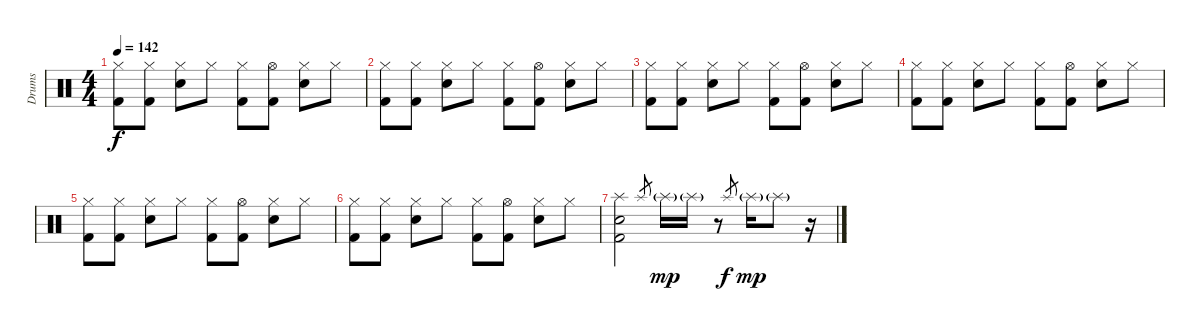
\track ("Drums" "Drums") {instrument percussion}
\staff {score}
\articulation defaults
\ts (4 4)
\tempo 142
\clef neutral
\ks c
("Hi-Hat (closed)" "Kick (hit) 2").8{dy f} ("Hi-Hat (closed)" "Kick (hit) 2").8 ("Hi-Hat (closed)" "Electric Snare (hit)").8 "Hi-Hat (closed)".8 ("Hi-Hat (closed)" "Kick (hit) 2").8 ("Hi-Hat (open)" "Kick (hit) 2").8 ("Hi-Hat (closed)" "Electric Snare (hit)").8 "Hi-Hat (closed)".8 |
("Hi-Hat (closed)" "Kick (hit) 2").8 ("Hi-Hat (closed)" "Kick (hit) 2").8 ("Hi-Hat (closed)" "Electric Snare (hit)").8 "Hi-Hat (closed)".8 ("Hi-Hat (closed)" "Kick (hit) 2").8 ("Hi-Hat (open)" "Kick (hit) 2").8 ("Hi-Hat (closed)" "Electric Snare (hit)").8 "Hi-Hat (closed)".8 |
("Hi-Hat (closed)" "Kick (hit) 2").8 ("Hi-Hat (closed)" "Kick (hit) 2").8 ("Hi-Hat (closed)" "Electric Snare (hit)").8 "Hi-Hat (closed)".8 ("Hi-Hat (closed)" "Kick (hit) 2").8 ("Hi-Hat (open)" "Kick (hit) 2").8 ("Hi-Hat (closed)" "Electric Snare (hit)").8 "Hi-Hat (closed)".8 |
("Hi-Hat (closed)" "Kick (hit) 2").8 ("Hi-Hat (closed)" "Kick (hit) 2").8 ("Hi-Hat (closed)" "Electric Snare (hit)").8 "Hi-Hat (closed)".8 ("Hi-Hat (closed)" "Kick (hit) 2").8 ("Hi-Hat (open)" "Kick (hit) 2").8 ("Hi-Hat (closed)" "Electric Snare (hit)").8 "Hi-Hat (closed)".8 |
("Hi-Hat (closed)" "Kick (hit) 2").8 ("Hi-Hat (closed)" "Kick (hit) 2").8 ("Hi-Hat (closed)" "Electric Snare (hit)").8 "Hi-Hat (closed)".8 ("Hi-Hat (closed)" "Kick (hit) 2").8 ("Hi-Hat (open)" "Kick (hit) 2").8 ("Hi-Hat (closed)" "Electric Snare (hit)").8 "Hi-Hat (closed)".8 |
("Hi-Hat (closed)" "Kick (hit) 2").8 ("Hi-Hat (closed)" "Kick (hit) 2").8 ("Hi-Hat (closed)" "Electric Snare (hit)").8 "Hi-Hat (closed)".8 ("Hi-Hat (closed)" "Kick (hit) 2").8 ("Hi-Hat (open)" "Kick (hit) 2").8 ("Hi-Hat (closed)" "Electric Snare (hit)").8 "Hi-Hat (closed)".8 |
("Splash (hit)" "Electric Snare (hit)" "Kick (hit) 2").2 "Splash (hit)".8{gr} "Splash (hit)"{g}.16{dy mp} "Splash (hit)"{g}.16 r.8 "Splash (hit)".8{gr dy f} "Splash (hit)"{g}.16{dy mp} "Splash (hit)"{g}.8 r.16
